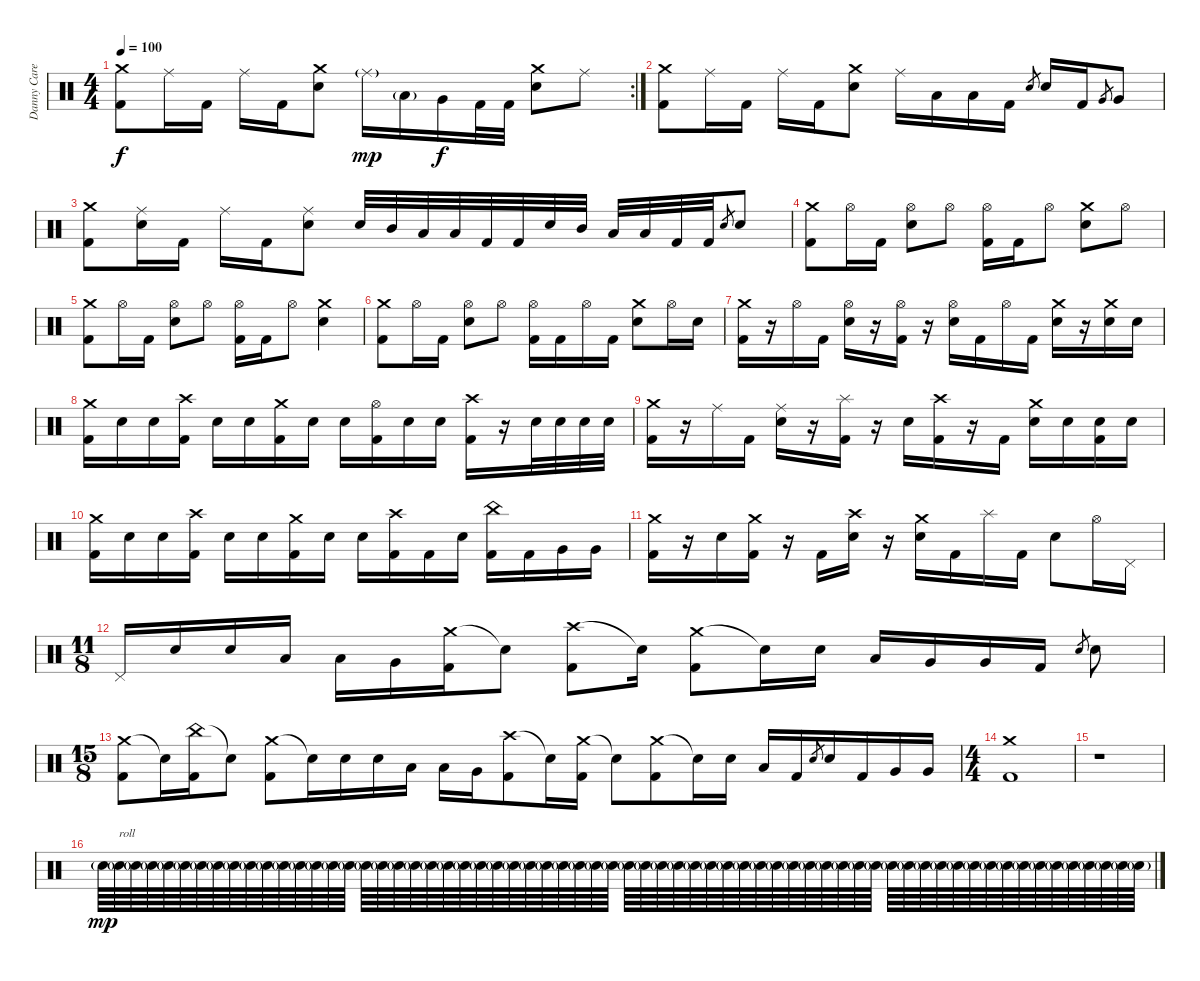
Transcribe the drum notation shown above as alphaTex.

\track ("Danny Carey" "Danny Care") {instrument percussion}
\staff {score}
\articulation defaults
\rc 2
\ts (4 4)
\tempo 100
\clef neutral
\ks c
("Crash medium (hit)" "Kick (hit) 2").8{dy f} "Ride (middle)".16 "Kick (hit) 2".16 "Ride (middle)".16 "Kick (hit) 2".16 ("Crash medium (hit)" "Snare (hit) 2").8 "Ride (middle)"{g}.16{dy mp} "Low Tom (hit)"{g}.16 "Very Low Tom (hit)".16{dy f} "Kick (hit) 2".32 "Kick (hit) 2".32 ("Crash medium (hit)" "Snare (hit) 2").8 "Ride (middle)".8 |
("Crash medium (hit)" "Kick (hit) 2").8 "Ride (middle)".16 "Kick (hit) 2".16 "Ride (middle)".16 "Kick (hit) 2".16 ("Crash medium (hit)" "Snare (hit) 2").8 "Ride (middle)".16 "Low Tom (hit)".16 "Low Tom (hit)".16 "Kick (hit) 2".16 "Snare (hit) 2".8{gr} "Snare (hit) 2".16 "Kick (hit) 2".16 "Very Low Tom (hit)".8{gr} "Very Low Tom (hit)".8 |
("Crash medium (hit)" "Kick (hit) 2").8 ("Ride (middle)" "Snare (hit) 2").16 "Kick (hit) 2".16 "Ride (middle)".16 "Kick (hit) 2".16 ("Ride (middle)" "Snare (hit) 2").8 "Snare (hit) 2".32 "Mid Tom (hit)".32 "Low Tom (hit)".32 "Low Tom (hit)".32 "Kick (hit) 2".32 "Kick (hit) 2".32 "Snare (hit) 2".32 "Mid Tom (hit)".32 "Low Tom (hit)".32 "Low Tom (hit)".32 "Kick (hit) 2".32 "Kick (hit) 2".32 "Snare (hit) 2".8{gr} "Snare (hit) 2".8 |
("Crash medium (hit)" "Kick (hit) 2").8 "Hi-Hat (open)".16 "Kick (hit) 2".16 ("Hi-Hat (open)" "Snare (hit) 2").8 "Hi-Hat (open)".8 ("Hi-Hat (open)" "Kick (hit) 2").16 "Kick (hit) 2".16 "Hi-Hat (open)".8 ("Crash medium (hit)" "Snare (hit) 2").8 "Hi-Hat (open)".8 |
("Crash medium (hit)" "Kick (hit) 2").8 "Hi-Hat (open)".16 "Kick (hit) 2".16 ("Hi-Hat (open)" "Snare (hit) 2").8 "Hi-Hat (open)".8 ("Hi-Hat (open)" "Kick (hit) 2").16 "Kick (hit) 2".16 "Hi-Hat (open)".8 ("Crash medium (hit)" "Snare (hit) 2").4 |
("Crash medium (hit)" "Kick (hit) 2").8 "Hi-Hat (open)".16 "Kick (hit) 2".16 ("Hi-Hat (open)" "Snare (hit) 2").8 "Hi-Hat (open)".8 ("Hi-Hat (open)" "Kick (hit) 2").16 "Kick (hit) 2".16 "Hi-Hat (open)".16 "Kick (hit) 2".16 ("Crash medium (hit)" "Snare (hit) 2").8 "Hi-Hat (open)".16 "Snare (hit) 2".16 |
("Crash medium (hit)" "Kick (hit) 2").16 r.16 "Hi-Hat (open)".16 "Kick (hit) 2".16 ("Hi-Hat (open)" "Snare (hit) 2").16 r.16 ("Hi-Hat (open)" "Kick (hit) 2").16 r.16 ("Hi-Hat (open)" "Snare (hit) 2").16 "Kick (hit) 2".16 "Hi-Hat (open)".16 "Kick (hit) 2".16 ("Crash medium (hit)" "Snare (hit) 2").16 r.16 ("Crash medium (hit)" "Snare (hit) 2").16 "Snare (hit) 2".16 |
("Crash medium (hit)" "Kick (hit) 2").16 "Snare (hit) 2".16 "Snare (hit) 2".16 ("Crash high (hit)" "Kick (hit) 2").16 "Snare (hit) 2".16 "Snare (hit) 2".16 ("Crash medium (hit)" "Kick (hit) 2").16 "Snare (hit) 2".16 "Snare (hit) 2".16 ("Hi-Hat (open)" "Kick (hit) 2").16 "Snare (hit) 2".16 "Snare (hit) 2".16 ("Crash high (hit)" "Kick (hit) 2").16 r.16 "Snare (hit) 2".32 "Snare (hit) 2".32 "Snare (hit) 2".32 "Snare (hit) 2".32 |
("Crash medium (hit)" "Kick (hit) 2").16 r.16 "Ride (middle)".16 "Kick (hit) 2".16 ("Ride (middle)" "Snare (hit) 2").16 r.16 ("Splash (hit)" "Kick (hit) 2").16 r.16 "Snare (hit) 2".16 ("Crash high (hit)" "Kick (hit) 2").16 r.16 "Kick (hit) 2".16 ("Crash medium (hit)" "Snare (hit) 2").16 "Snare (hit) 2".16 ("Snare (hit) 2" "Kick (hit) 2").16 "Snare (hit) 2".16 |
("Crash medium (hit)" "Kick (hit) 2").16 "Snare (hit) 2".16 "Snare (hit) 2".16 ("Crash high (hit)" "Kick (hit) 2").16 "Snare (hit) 2".16 "Snare (hit) 2".16 ("Crash medium (hit)" "Kick (hit) 2").16 "Snare (hit) 2".16 "Snare (hit) 2".16 ("Crash high (hit)" "Kick (hit) 2").16 "Kick (hit) 2".16 "Snare (hit) 2".16 ("China (hit)" "Kick (hit) 2").16 "Kick (hit) 2".16 "Very Low Tom (hit)".16 "Very Low Tom (hit)".16 |
("Crash medium (hit)" "Kick (hit) 2").16 r.16 "Snare (hit) 2".16 ("Crash medium (hit)" "Kick (hit) 2").16 r.16 "Kick (hit) 2".16 ("Crash high (hit)" "Snare (hit) 2").16 r.16 ("Crash medium (hit)" "Snare (hit) 2").16 "Kick (hit) 2".16 "Splash (hit)".16 "Kick (hit) 2".16 "Snare (hit) 2".8 "Hi-Hat (open)".16 "Pedal Hi-Hat (hit)".16 |
\ts (11 8)
"Pedal Hi-Hat (hit)".16 "Snare (hit) 2".16 "Snare (hit) 2".16 "Low Tom (hit)".16 "Low Tom (hit)".16 "Very Low Tom (hit)".16 ("Crash medium (hit)" "Kick (hit) 2").16 "Snare (hit)"{t}.8 ("Crash high (hit)" "Kick (hit) 2").8 "Snare (hit)"{t}.16 ("Crash medium (hit)" "Kick (hit) 2").8 "Snare (hit)"{t}.16 "Snare (hit) 2".16 "Low Tom (hit)".16 "Very Low Tom (hit)".16 "Very Low Tom (hit)".16 "Kick (hit) 2".16 "Snare (hit) 2".8{gr} "Snare (hit) 2".8 |
\ts (15 8)
("Crash medium (hit)" "Kick (hit) 2").8 "Snare (hit)"{t}.16 ("China (hit)" "Kick (hit) 2").16 "Snare (hit)"{t}.8 ("Crash medium (hit)" "Kick (hit) 2").8 "Snare (hit)"{t}.16 "Snare (hit) 2".16 "Snare (hit) 2".16 "Low Tom (hit)".16 "Low Tom (hit)".16 "Very Low Tom (hit)".16 ("Crash high (hit)" "Kick (hit) 2").8 "Snare (hit)"{t}.16 ("Crash medium (hit)" "Kick (hit) 2").16 "Snare (hit)"{t}.8 ("Crash medium (hit)" "Kick (hit) 2").8 "Snare (hit)"{t}.16 "Snare (hit) 2".16 "Low Tom (hit)".16 "Kick (hit) 2".16 "Snare (hit) 2".8{gr} "Snare (hit) 2".16 "Kick (hit) 2".16 "Very Low Tom (hit)".16 "Very Low Tom (hit)".16 |
\ts (4 4)
("Crash medium (hit)" "Kick (hit) 2").1 |
r.1{volume 3} |
"Snare (hit) 2"{g}.64{dy mp volume 13} "Snare (hit) 2"{g}.64{txt "roll"} "Snare (hit) 2"{g}.64 "Snare (hit) 2"{g}.64 "Snare (hit) 2"{g}.64 "Snare (hit) 2"{g}.64 "Snare (hit) 2"{g}.64 "Snare (hit) 2"{g}.64 "Snare (hit) 2"{g}.64 "Snare (hit) 2"{g}.64 "Snare (hit) 2"{g}.64 "Snare (hit) 2"{g}.64 "Snare (hit) 2"{g}.64 "Snare (hit) 2"{g}.64 "Snare (hit) 2"{g}.64 "Snare (hit) 2"{g}.64 "Snare (hit) 2"{g}.64 "Snare (hit) 2"{g}.64 "Snare (hit) 2"{g}.64 "Snare (hit) 2"{g}.64 "Snare (hit) 2"{g}.64 "Snare (hit) 2"{g}.64 "Snare (hit) 2"{g}.64 "Snare (hit) 2"{g}.64 "Snare (hit) 2"{g}.64 "Snare (hit) 2"{g}.64 "Snare (hit) 2"{g}.64 "Snare (hit) 2"{g}.64 "Snare (hit) 2"{g}.64 "Snare (hit) 2"{g}.64 "Snare (hit) 2"{g}.64 "Snare (hit) 2"{g}.64 "Snare (hit) 2"{g}.64 "Snare (hit) 2"{g}.64 "Snare (hit) 2"{g}.64 "Snare (hit) 2"{g}.64 "Snare (hit) 2"{g}.64 "Snare (hit) 2"{g}.64 "Snare (hit) 2"{g}.64 "Snare (hit) 2"{g}.64 "Snare (hit) 2"{g}.64 "Snare (hit) 2"{g}.64 "Snare (hit) 2"{g}.64 "Snare (hit) 2"{g}.64 "Snare (hit) 2"{g}.64 "Snare (hit) 2"{g}.64 "Snare (hit) 2"{g}.64 "Snare (hit) 2"{g}.64 "Snare (hit) 2"{g}.64 "Snare (hit) 2"{g}.64 "Snare (hit) 2"{g}.64 "Snare (hit) 2"{g}.64 "Snare (hit) 2"{g}.64 "Snare (hit) 2"{g}.64 "Snare (hit) 2"{g}.64 "Snare (hit) 2"{g}.64 "Snare (hit) 2"{g}.64 "Snare (hit) 2"{g}.64 "Snare (hit) 2"{g}.64 "Snare (hit) 2"{g}.64 "Snare (hit) 2"{g}.64 "Snare (hit) 2"{g}.64 "Snare (hit) 2"{g}.64 "Snare (hit) 2"{g}.64
